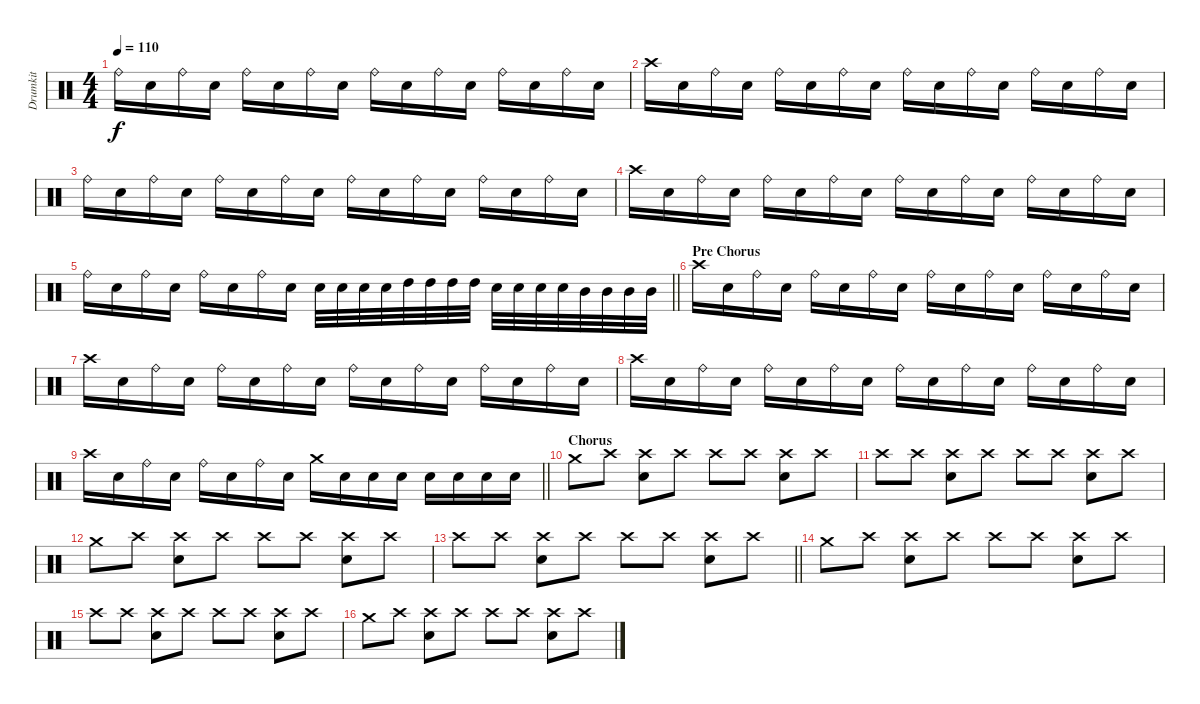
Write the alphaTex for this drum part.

\track ("Drumkit" "Drumkit") {instrument percussion}
\staff {score}
\articulation defaults
\ts (4 4)
\tempo 110
\clef neutral
\ks c "Ride (bell)".16{dy f} "Electric Snare (hit)".16 "Ride (bell)".16 "Electric Snare (hit)".16 "Ride (bell)".16 "Electric Snare (hit)".16 "Ride (bell)".16 "Electric Snare (hit)".16 "Ride (bell)".16 "Electric Snare (hit)".16 "Ride (bell)".16 "Electric Snare (hit)".16 "Ride (bell)".16 "Electric Snare (hit)".16 "Ride (bell)".16 "Electric Snare (hit)".16
|
"Crash high (hit)".16 "Electric Snare (hit)".16 "Ride (bell)".16 "Electric Snare (hit)".16 "Ride (bell)".16 "Electric Snare (hit)".16 "Ride (bell)".16 "Electric Snare (hit)".16 "Ride (bell)".16 "Electric Snare (hit)".16 "Ride (bell)".16 "Electric Snare (hit)".16 "Ride (bell)".16 "Electric Snare (hit)".16 "Ride (bell)".16 "Electric Snare (hit)".16 |
"Ride (bell)".16 "Electric Snare (hit)".16 "Ride (bell)".16 "Electric Snare (hit)".16 "Ride (bell)".16 "Electric Snare (hit)".16 "Ride (bell)".16 "Electric Snare (hit)".16 "Ride (bell)".16 "Electric Snare (hit)".16 "Ride (bell)".16 "Electric Snare (hit)".16 "Ride (bell)".16 "Electric Snare (hit)".16 "Ride (bell)".16 "Electric Snare (hit)".16 |
"Crash high (hit)".16 "Electric Snare (hit)".16 "Ride (bell)".16 "Electric Snare (hit)".16 "Ride (bell)".16 "Electric Snare (hit)".16 "Ride (bell)".16 "Electric Snare (hit)".16 "Ride (bell)".16 "Electric Snare (hit)".16 "Ride (bell)".16 "Electric Snare (hit)".16 "Ride (bell)".16 "Electric Snare (hit)".16 "Ride (bell)".16 "Electric Snare (hit)".16 |
\barLineRight lightlight "Ride (bell)".16 "Electric Snare (hit)".16 "Ride (bell)".16 "Electric Snare (hit)".16 "Ride (bell)".16 "Electric Snare (hit)".16 "Ride (bell)".16 "Electric Snare (hit)".16 "Electric Snare (hit)".32 "Electric Snare (hit)".32 "Electric Snare (hit)".32 "Electric Snare (hit)".32 "High Tom (hit)".32 "High Tom (hit)".32 "High Tom (hit)".32 "High Tom (hit)".32 "Electric Snare (hit)".32 "Electric Snare (hit)".32 "Electric Snare (hit)".32 "Electric Snare (hit)".32 "Mid Tom (hit)".32 "Mid Tom (hit)".32 "Mid Tom (hit)".32 "Mid Tom (hit)".32
|
\section ("" "Pre Chorus")
"Crash high (hit)".16 "Electric Snare (hit)".16 "Ride (bell)".16 "Electric Snare (hit)".16 "Ride (bell)".16 "Electric Snare (hit)".16 "Ride (bell)".16 "Electric Snare (hit)".16 "Ride (bell)".16 "Electric Snare (hit)".16 "Ride (bell)".16 "Electric Snare (hit)".16 "Ride (bell)".16 "Electric Snare (hit)".16 "Ride (bell)".16 "Electric Snare (hit)".16 |
"Crash high (hit)".16 "Electric Snare (hit)".16 "Ride (bell)".16 "Electric Snare (hit)".16 "Ride (bell)".16 "Electric Snare (hit)".16 "Ride (bell)".16 "Electric Snare (hit)".16 "Ride (bell)".16 "Electric Snare (hit)".16 "Ride (bell)".16 "Electric Snare (hit)".16 "Ride (bell)".16 "Electric Snare (hit)".16 "Ride (bell)".16 "Electric Snare (hit)".16 |
"Crash high (hit)".16 "Electric Snare (hit)".16 "Ride (bell)".16 "Electric Snare (hit)".16 "Ride (bell)".16 "Electric Snare (hit)".16 "Ride (bell)".16 "Electric Snare (hit)".16 "Ride (bell)".16 "Electric Snare (hit)".16 "Ride (bell)".16 "Electric Snare (hit)".16 "Ride (bell)".16 "Electric Snare (hit)".16 "Ride (bell)".16 "Electric Snare (hit)".16 |
\barLineRight lightlight "Crash high (hit)".16 "Electric Snare (hit)".16 "Ride (bell)".16 "Electric Snare (hit)".16 "Ride (bell)".16 "Electric Snare (hit)".16 "Ride (bell)".16 "Electric Snare (hit)".16 "Crash medium (hit)".16 "Electric Snare (hit)".16 "Electric Snare (hit)".16 "Electric Snare (hit)".16 "Electric Snare (hit)".16 "Electric Snare (hit)".16 "Electric Snare (hit)".16 "Electric Snare (hit)".16
|
\section ("" "Chorus")
"Crash medium (hit)".8 "Crash high (hit)".8 ("Crash high (hit)" "Electric Snare (hit)").8 "Crash high (hit)".8 "Crash high (hit)".8 "Crash high (hit)".8 ("Crash high (hit)" "Electric Snare (hit)").8 "Crash high (hit)".8 |
"Crash high (hit)".8 "Crash high (hit)".8 ("Crash high (hit)" "Electric Snare (hit)").8 "Crash high (hit)".8 "Crash high (hit)".8 "Crash high (hit)".8 ("Crash high (hit)" "Electric Snare (hit)").8 "Crash high (hit)".8 |
"Crash medium (hit)".8 "Crash high (hit)".8 ("Crash high (hit)" "Electric Snare (hit)").8 "Crash high (hit)".8 "Crash high (hit)".8 "Crash high (hit)".8 ("Crash high (hit)" "Electric Snare (hit)").8 "Crash high (hit)".8 |
\barLineRight lightlight "Crash high (hit)".8 "Crash high (hit)".8
("Crash high (hit)" "Electric Snare (hit)").8 "Crash high (hit)".8 "Crash high (hit)".8 "Crash high (hit)".8 ("Crash high (hit)" "Electric Snare (hit)").8 "Crash high (hit)".8 |
"Crash medium (hit)".8 "Crash high (hit)".8 ("Crash high (hit)" "Electric Snare (hit)").8 "Crash high (hit)".8 "Crash high (hit)".8 "Crash high (hit)".8 ("Crash high (hit)" "Electric Snare (hit)").8 "Crash high (hit)".8 |
"Crash high (hit)".8 "Crash high (hit)".8 ("Crash high (hit)" "Electric Snare (hit)").8 "Crash high (hit)".8 "Crash high (hit)".8 "Crash high (hit)".8 ("Crash high (hit)" "Electric Snare (hit)").8 "Crash high (hit)".8 |
"Crash medium (hit)".8 "Crash high (hit)".8 ("Crash high (hit)" "Electric Snare (hit)").8 "Crash high (hit)".8 "Crash high (hit)".8 "Crash high (hit)".8 ("Crash high (hit)" "Electric Snare (hit)").8 "Crash high (hit)".8
